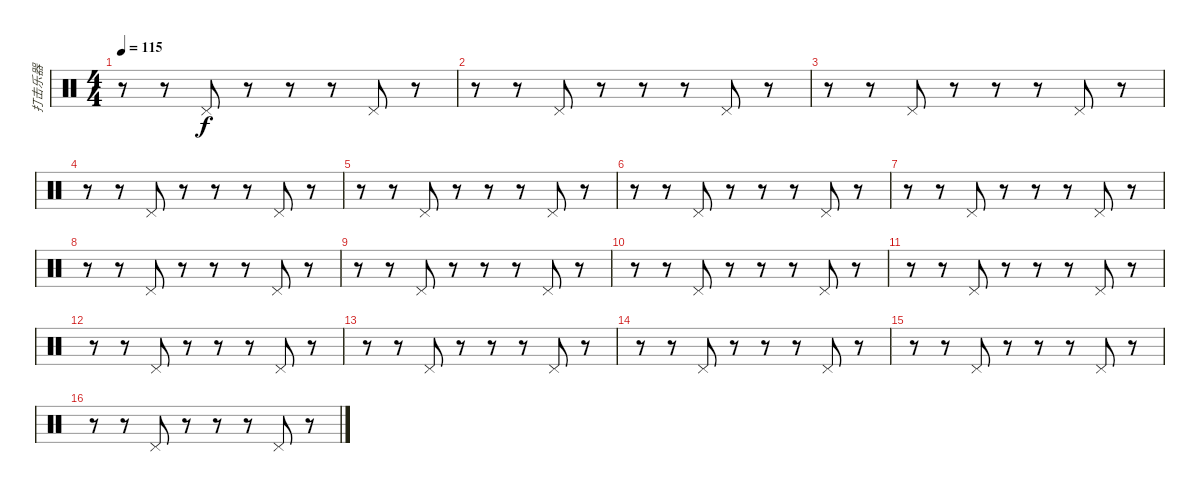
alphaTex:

\track ("打击乐器" "打击乐器") {instrument percussion}
\staff {score}
\articulation defaults
\ts (4 4)
\tempo 115
\clef neutral
\ks c
r.8{dy f} r.8 "Pedal Hi-Hat (hit)".8 r.8 r.8 r.8 "Pedal Hi-Hat (hit)".8 r.8 |
r.8 r.8 "Pedal Hi-Hat (hit)".8 r.8 r.8 r.8 "Pedal Hi-Hat (hit)".8 r.8 |
r.8 r.8 "Pedal Hi-Hat (hit)".8 r.8 r.8 r.8 "Pedal Hi-Hat (hit)".8 r.8 |
r.8 r.8 "Pedal Hi-Hat (hit)".8 r.8 r.8 r.8 "Pedal Hi-Hat (hit)".8 r.8 |
r.8 r.8 "Pedal Hi-Hat (hit)".8 r.8 r.8 r.8 "Pedal Hi-Hat (hit)".8 r.8 |
r.8 r.8 "Pedal Hi-Hat (hit)".8 r.8 r.8 r.8 "Pedal Hi-Hat (hit)".8 r.8 |
r.8 r.8 "Pedal Hi-Hat (hit)".8 r.8 r.8 r.8 "Pedal Hi-Hat (hit)".8 r.8 |
r.8 r.8 "Pedal Hi-Hat (hit)".8 r.8 r.8 r.8 "Pedal Hi-Hat (hit)".8 r.8 |
r.8 r.8 "Pedal Hi-Hat (hit)".8 r.8 r.8 r.8 "Pedal Hi-Hat (hit)".8 r.8 |
r.8 r.8 "Pedal Hi-Hat (hit)".8 r.8 r.8 r.8 "Pedal Hi-Hat (hit)".8 r.8 |
r.8 r.8 "Pedal Hi-Hat (hit)".8 r.8 r.8 r.8 "Pedal Hi-Hat (hit)".8 r.8 |
r.8 r.8 "Pedal Hi-Hat (hit)".8 r.8 r.8 r.8 "Pedal Hi-Hat (hit)".8 r.8 |
r.8 r.8 "Pedal Hi-Hat (hit)".8 r.8 r.8 r.8 "Pedal Hi-Hat (hit)".8 r.8 |
r.8 r.8 "Pedal Hi-Hat (hit)".8 r.8 r.8 r.8 "Pedal Hi-Hat (hit)".8 r.8 |
r.8 r.8 "Pedal Hi-Hat (hit)".8 r.8 r.8 r.8 "Pedal Hi-Hat (hit)".8 r.8 |
r.8 r.8 "Pedal Hi-Hat (hit)".8 r.8 r.8 r.8 "Pedal Hi-Hat (hit)".8 r.8
